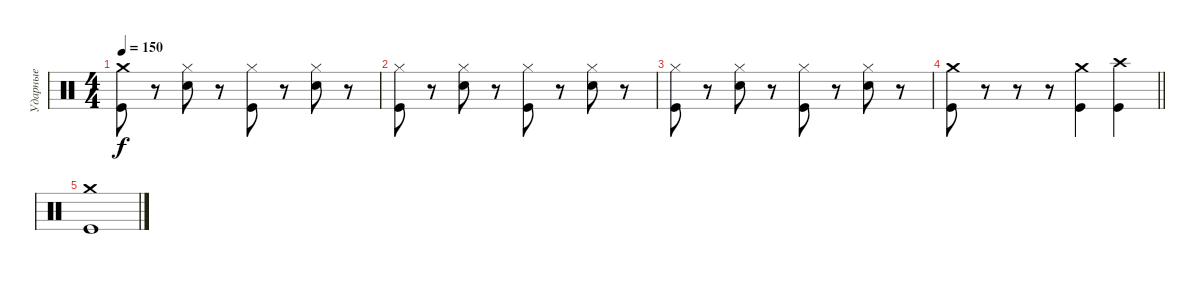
\track ("Ударные" "Ударные") {instrument percussion}
\staff {score}
\articulation defaults
\ts (4 4)
\tempo 150
\clef neutral
\ks c
("Crash medium (hit)" "Kick (hit)").8{dy f} r.8 ("Hi-Hat (closed)" "Electric Snare (hit)").8 r.8 ("Hi-Hat (closed)" "Kick (hit)").8 r.8 ("Hi-Hat (closed)" "Electric Snare (hit)").8 r.8 |
("Hi-Hat (closed)" "Kick (hit)").8 r.8 ("Hi-Hat (closed)" "Electric Snare (hit)").8 r.8 ("Hi-Hat (closed)" "Kick (hit)").8 r.8 ("Hi-Hat (closed)" "Electric Snare (hit)").8 r.8 |
("Hi-Hat (closed)" "Kick (hit)").8 r.8 ("Hi-Hat (closed)" "Electric Snare (hit)").8 r.8 ("Hi-Hat (closed)" "Kick (hit)").8 r.8 ("Hi-Hat (closed)" "Electric Snare (hit)").8 r.8 |
\barLineRight lightlight
("Crash medium (hit)" "Kick (hit)").8 r.8 r.8 r.8 ("Crash medium (hit)" "Kick (hit)").4 ("Crash high (hit)" "Kick (hit)").4 |
("Crash medium (hit)" "Kick (hit)").1
